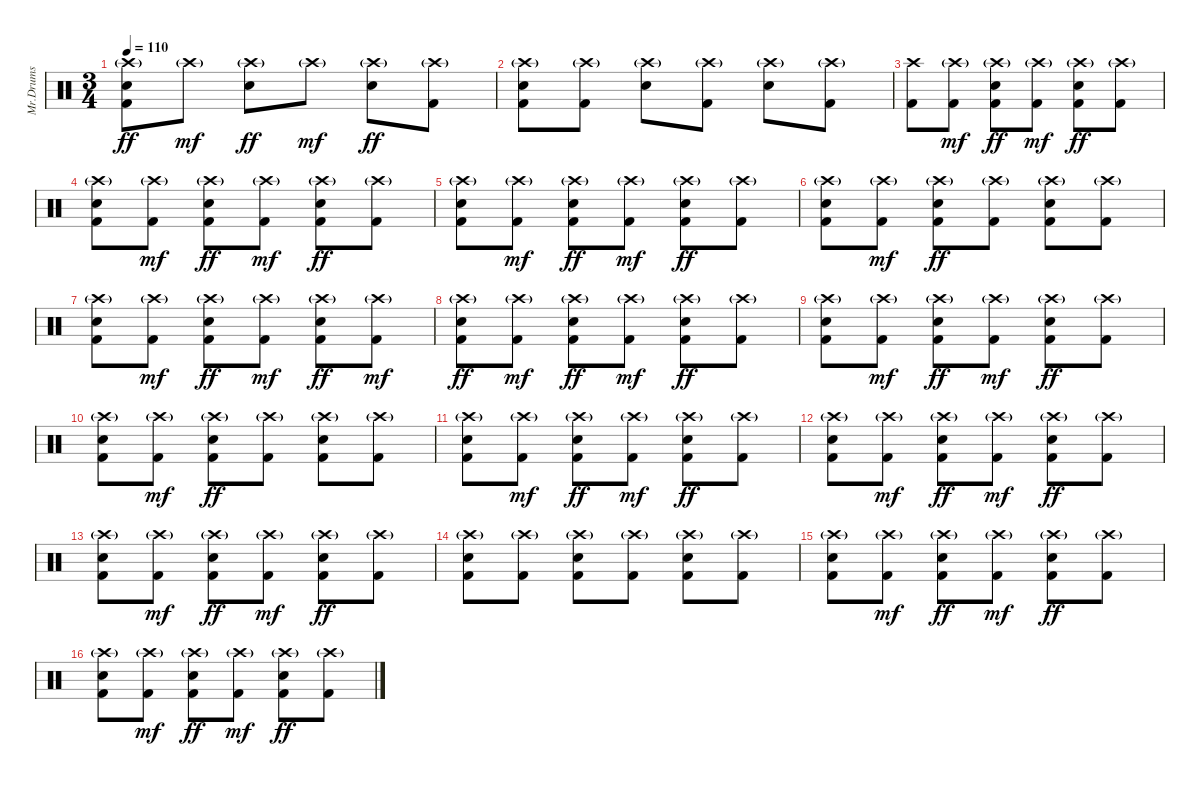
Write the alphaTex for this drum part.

\track ("Mr.Drums" "Mr.Drums") {instrument percussion}
\staff {score}
\articulation defaults
\ts (3 4)
\tempo 110
\clef neutral
\ks c
("Crash high (hit)"{g} "Electric Snare (hit)" "Kick (hit) 2").8{dy ff} "Crash high (hit)"{g}.8{dy mf} ("Crash high (hit)"{g} "Electric Snare (hit)").8{dy ff} "Crash high (hit)"{g}.8{dy mf} ("Crash high (hit)"{g} "Electric Snare (hit)").8{dy ff} ("Crash high (hit)"{g} "Kick (hit) 2").8 |
("Crash high (hit)"{g} "Electric Snare (hit)" "Kick (hit) 2").8 ("Crash high (hit)"{g} "Kick (hit) 2").8 ("Crash high (hit)"{g} "Electric Snare (hit)").8 ("Crash high (hit)"{g} "Kick (hit) 2").8 ("Crash high (hit)"{g} "Electric Snare (hit)").8 ("Crash high (hit)"{g} "Kick (hit) 2").8 |
("Crash high (hit)" "Kick (hit) 2").8 ("Crash high (hit)"{g} "Kick (hit) 2").8{dy mf} ("Crash high (hit)"{g} "Electric Snare (hit)" "Kick (hit) 2").8{dy ff} ("Crash high (hit)"{g} "Kick (hit) 2").8{dy mf} ("Crash high (hit)"{g} "Electric Snare (hit)" "Kick (hit) 2").8{dy ff} ("Crash high (hit)"{g} "Kick (hit) 2").8 |
("Crash high (hit)"{g} "Electric Snare (hit)" "Kick (hit) 2").8 ("Crash high (hit)"{g} "Kick (hit) 2").8{dy mf} ("Crash high (hit)"{g} "Electric Snare (hit)" "Kick (hit) 2").8{dy ff} ("Crash high (hit)"{g} "Kick (hit) 2").8{dy mf} ("Crash high (hit)"{g} "Electric Snare (hit)" "Kick (hit) 2").8{dy ff} ("Crash high (hit)"{g} "Kick (hit) 2").8 |
("Crash high (hit)"{g} "Electric Snare (hit)" "Kick (hit) 2").8 ("Crash high (hit)"{g} "Kick (hit) 2").8{dy mf} ("Crash high (hit)"{g} "Electric Snare (hit)" "Kick (hit) 2").8{dy ff} ("Crash high (hit)"{g} "Kick (hit) 2").8{dy mf} ("Crash high (hit)"{g} "Electric Snare (hit)" "Kick (hit) 2").8{dy ff} ("Crash high (hit)"{g} "Kick (hit) 2").8 |
("Crash high (hit)"{g} "Electric Snare (hit)" "Kick (hit) 2").8 ("Crash high (hit)"{g} "Kick (hit) 2").8{dy mf} ("Crash high (hit)"{g} "Electric Snare (hit)" "Kick (hit) 2").8{dy ff} ("Crash high (hit)"{g} "Kick (hit) 2").8 ("Crash high (hit)"{g} "Electric Snare (hit)" "Kick (hit) 2").8 ("Crash high (hit)"{g} "Kick (hit) 2").8 |
("Crash high (hit)"{g} "Electric Snare (hit)" "Kick (hit) 2").8 ("Crash high (hit)"{g} "Kick (hit) 2").8{dy mf} ("Crash high (hit)"{g} "Electric Snare (hit)" "Kick (hit) 2").8{dy ff} ("Crash high (hit)"{g} "Kick (hit) 2").8{dy mf} ("Crash high (hit)"{g} "Electric Snare (hit)" "Kick (hit) 2").8{dy ff} ("Crash high (hit)"{g} "Kick (hit) 2").8{dy mf} |
("Crash high (hit)"{g} "Electric Snare (hit)" "Kick (hit) 2").8{dy ff} ("Crash high (hit)"{g} "Kick (hit) 2").8{dy mf} ("Crash high (hit)"{g} "Electric Snare (hit)" "Kick (hit) 2").8{dy ff} ("Crash high (hit)"{g} "Kick (hit) 2").8{dy mf} ("Crash high (hit)"{g} "Electric Snare (hit)" "Kick (hit) 2").8{dy ff} ("Crash high (hit)"{g} "Kick (hit) 2").8 |
("Crash high (hit)"{g} "Electric Snare (hit)" "Kick (hit) 2").8 ("Crash high (hit)"{g} "Kick (hit) 2").8{dy mf} ("Crash high (hit)"{g} "Electric Snare (hit)" "Kick (hit) 2").8{dy ff} ("Crash high (hit)"{g} "Kick (hit) 2").8{dy mf} ("Crash high (hit)"{g} "Electric Snare (hit)" "Kick (hit) 2").8{dy ff} ("Crash high (hit)"{g} "Kick (hit) 2").8 |
("Crash high (hit)"{g} "Electric Snare (hit)" "Kick (hit) 2").8 ("Crash high (hit)"{g} "Kick (hit) 2").8{dy mf} ("Crash high (hit)"{g} "Electric Snare (hit)" "Kick (hit) 2").8{dy ff} ("Crash high (hit)"{g} "Kick (hit) 2").8 ("Crash high (hit)"{g} "Electric Snare (hit)" "Kick (hit) 2").8 ("Crash high (hit)"{g} "Kick (hit) 2").8 |
("Crash high (hit)"{g} "Electric Snare (hit)" "Kick (hit) 2").8 ("Crash high (hit)"{g} "Kick (hit) 2").8{dy mf} ("Crash high (hit)"{g} "Electric Snare (hit)" "Kick (hit) 2").8{dy ff} ("Crash high (hit)"{g} "Kick (hit) 2").8{dy mf} ("Crash high (hit)"{g} "Electric Snare (hit)" "Kick (hit) 2").8{dy ff} ("Crash high (hit)"{g} "Kick (hit) 2").8 |
("Crash high (hit)"{g} "Electric Snare (hit)" "Kick (hit) 2").8 ("Crash high (hit)"{g} "Kick (hit) 2").8{dy mf} ("Crash high (hit)"{g} "Electric Snare (hit)" "Kick (hit) 2").8{dy ff} ("Crash high (hit)"{g} "Kick (hit) 2").8{dy mf} ("Crash high (hit)"{g} "Electric Snare (hit)" "Kick (hit) 2").8{dy ff} ("Crash high (hit)"{g} "Kick (hit) 2").8 |
("Crash high (hit)"{g} "Electric Snare (hit)" "Kick (hit) 2").8 ("Crash high (hit)"{g} "Kick (hit) 2").8{dy mf} ("Crash high (hit)"{g} "Electric Snare (hit)" "Kick (hit) 2").8{dy ff} ("Crash high (hit)"{g} "Kick (hit) 2").8{dy mf} ("Crash high (hit)"{g} "Electric Snare (hit)" "Kick (hit) 2").8{dy ff} ("Crash high (hit)"{g} "Kick (hit) 2").8 |
("Crash high (hit)"{g} "Electric Snare (hit)" "Kick (hit) 2").8 ("Crash high (hit)"{g} "Kick (hit) 2").8 ("Crash high (hit)"{g} "Electric Snare (hit)" "Kick (hit) 2").8 ("Crash high (hit)"{g} "Kick (hit) 2").8 ("Crash high (hit)"{g} "Electric Snare (hit)" "Kick (hit) 2").8 ("Crash high (hit)"{g} "Kick (hit) 2").8 |
("Crash high (hit)"{g} "Electric Snare (hit)" "Kick (hit) 2").8 ("Crash high (hit)"{g} "Kick (hit) 2").8{dy mf} ("Crash high (hit)"{g} "Electric Snare (hit)" "Kick (hit) 2").8{dy ff} ("Crash high (hit)"{g} "Kick (hit) 2").8{dy mf} ("Crash high (hit)"{g} "Electric Snare (hit)" "Kick (hit) 2").8{dy ff} ("Crash high (hit)"{g} "Kick (hit) 2").8 |
("Crash high (hit)"{g} "Electric Snare (hit)" "Kick (hit) 2").8 ("Crash high (hit)"{g} "Kick (hit) 2").8{dy mf} ("Crash high (hit)"{g} "Electric Snare (hit)" "Kick (hit) 2").8{dy ff} ("Crash high (hit)"{g} "Kick (hit) 2").8{dy mf} ("Crash high (hit)"{g} "Electric Snare (hit)" "Kick (hit) 2").8{dy ff} ("Crash high (hit)"{g} "Kick (hit) 2").8
